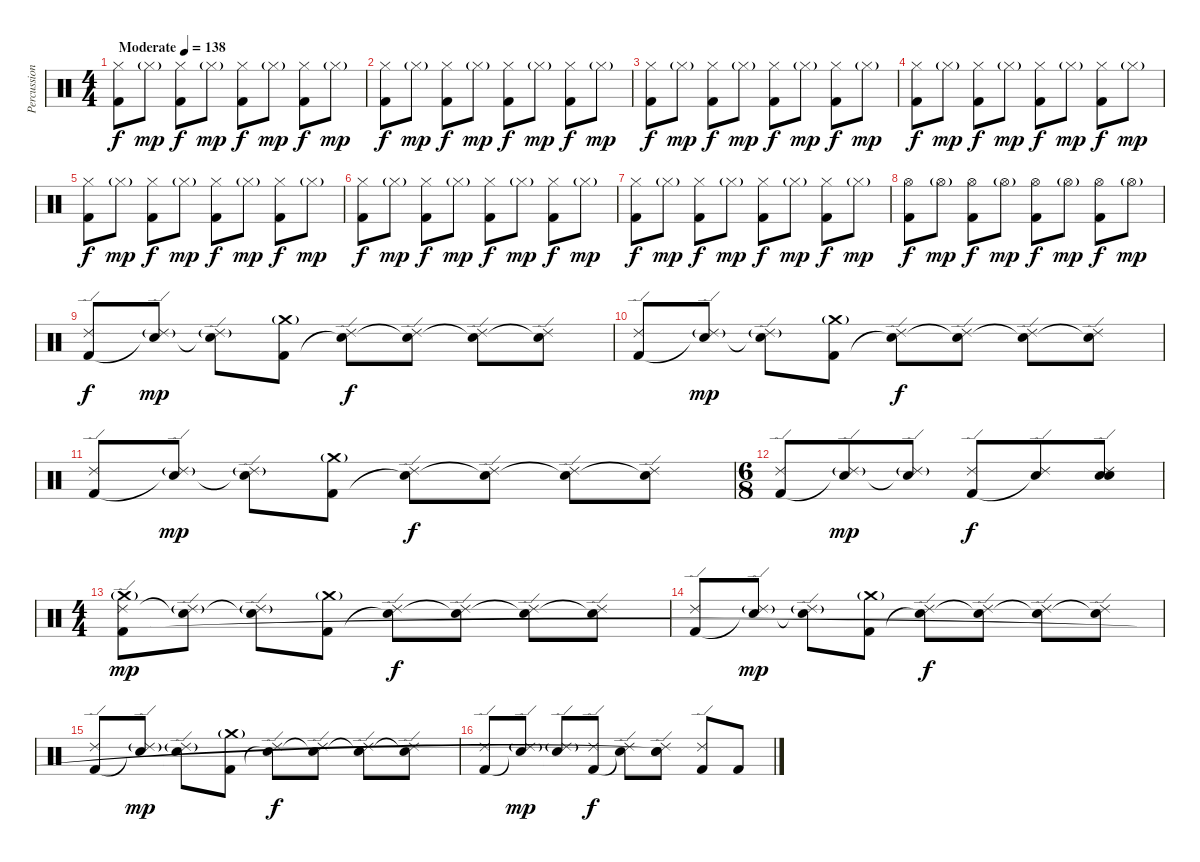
\track ("Percussion" "Percussion") {instrument percussion}
\staff {score}
\articulation defaults
\ts (4 4)
\tempo (138 "Moderate")
\clef neutral
\ks c
("Hi-Hat (closed)" "Kick (hit) 2").8{dy f} "Hi-Hat (closed)"{g}.8{dy mp} ("Hi-Hat (closed)" "Kick (hit) 2").8{dy f} "Hi-Hat (closed)"{g}.8{dy mp} ("Hi-Hat (closed)" "Kick (hit) 2").8{dy f} "Hi-Hat (closed)"{g}.8{dy mp} ("Hi-Hat (closed)" "Kick (hit) 2").8{dy f} "Hi-Hat (closed)"{g}.8{dy mp} |
("Hi-Hat (closed)" "Kick (hit) 2").8{dy f} "Hi-Hat (closed)"{g}.8{dy mp} ("Hi-Hat (closed)" "Kick (hit) 2").8{dy f} "Hi-Hat (closed)"{g}.8{dy mp} ("Hi-Hat (closed)" "Kick (hit) 2").8{dy f} "Hi-Hat (closed)"{g}.8{dy mp} ("Hi-Hat (closed)" "Kick (hit) 2").8{dy f} "Hi-Hat (closed)"{g}.8{dy mp} |
("Hi-Hat (closed)" "Kick (hit) 2").8{dy f} "Hi-Hat (closed)"{g}.8{dy mp} ("Hi-Hat (closed)" "Kick (hit) 2").8{dy f} "Hi-Hat (closed)"{g}.8{dy mp} ("Hi-Hat (closed)" "Kick (hit) 2").8{dy f} "Hi-Hat (closed)"{g}.8{dy mp} ("Hi-Hat (closed)" "Kick (hit) 2").8{dy f} "Hi-Hat (closed)"{g}.8{dy mp} |
("Hi-Hat (closed)" "Kick (hit) 2").8{dy f} "Hi-Hat (closed)"{g}.8{dy mp} ("Hi-Hat (closed)" "Kick (hit) 2").8{dy f} "Hi-Hat (closed)"{g}.8{dy mp} ("Hi-Hat (closed)" "Kick (hit) 2").8{dy f} "Hi-Hat (closed)"{g}.8{dy mp} ("Hi-Hat (closed)" "Kick (hit) 2").8{dy f} "Hi-Hat (closed)"{g}.8{dy mp} |
("Hi-Hat (closed)" "Kick (hit) 2").8{dy f} "Hi-Hat (closed)"{g}.8{dy mp} ("Hi-Hat (closed)" "Kick (hit) 2").8{dy f} "Hi-Hat (closed)"{g}.8{dy mp} ("Hi-Hat (closed)" "Kick (hit) 2").8{dy f} "Hi-Hat (closed)"{g}.8{dy mp} ("Hi-Hat (closed)" "Kick (hit) 2").8{dy f} "Hi-Hat (closed)"{g}.8{dy mp} |
("Hi-Hat (closed)" "Kick (hit) 2").8{dy f} "Hi-Hat (closed)"{g}.8{dy mp} ("Hi-Hat (closed)" "Kick (hit) 2").8{dy f} "Hi-Hat (closed)"{g}.8{dy mp} ("Hi-Hat (closed)" "Kick (hit) 2").8{dy f} "Hi-Hat (closed)"{g}.8{dy mp} ("Hi-Hat (closed)" "Kick (hit) 2").8{dy f} "Hi-Hat (closed)"{g}.8{dy mp} |
("Hi-Hat (closed)" "Kick (hit) 2").8{dy f} "Hi-Hat (closed)"{g}.8{dy mp} ("Hi-Hat (closed)" "Kick (hit) 2").8{dy f} "Hi-Hat (closed)"{g}.8{dy mp} ("Hi-Hat (closed)" "Kick (hit) 2").8{dy f} "Hi-Hat (closed)"{g}.8{dy mp} ("Hi-Hat (closed)" "Kick (hit) 2").8{dy f} "Hi-Hat (closed)"{g}.8{dy mp} |
("Hi-Hat (open)" "Kick (hit) 2").8{dy f} "Hi-Hat (open)"{g}.8{dy mp} ("Hi-Hat (open)" "Kick (hit) 2").8{dy f} "Hi-Hat (open)"{g}.8{dy mp} ("Hi-Hat (open)" "Kick (hit) 2").8{dy f} "Hi-Hat (open)"{g}.8{dy mp} ("Hi-Hat (open)" "Kick (hit) 2").8{dy f} "Hi-Hat (open)"{g}.8{dy mp} |
("Ride (edge) 2" "Kick (hit) 2").8{dy f} ("Ride (edge) 2"{g} "Snare (hit)"{t}).8{dy mp} ("Ride (edge) 2"{g} "Snare (hit)"{t}).8 ("Crash medium (hit)"{g} "Kick (hit) 2").8 ("Ride (edge) 2" "Snare (hit)"{t}).8{dy f} ("Ride (edge) 2" "Snare (hit)"{t}).8 ("Ride (edge) 2" "Snare (hit)"{t}).8 ("Ride (edge) 2" "Snare (hit)"{t}).8 |
("Ride (edge) 2" "Kick (hit) 2").8 ("Ride (edge) 2"{g} "Snare (hit)"{t}).8{dy mp} ("Ride (edge) 2"{g} "Snare (hit)"{t}).8 ("Crash medium (hit)"{g} "Kick (hit) 2").8 ("Ride (edge) 2" "Snare (hit)"{t}).8{dy f} ("Ride (edge) 2" "Snare (hit)"{t}).8 ("Ride (edge) 2" "Snare (hit)"{t}).8 ("Ride (edge) 2" "Snare (hit)"{t}).8 |
("Ride (edge) 2" "Kick (hit) 2").8 ("Ride (edge) 2"{g} "Snare (hit)"{t}).8{dy mp} ("Ride (edge) 2"{g} "Snare (hit)"{t}).8 ("Crash medium (hit)"{g} "Kick (hit) 2").8 ("Ride (edge) 2" "Snare (hit)"{t}).8{dy f} ("Ride (edge) 2" "Snare (hit)"{t}).8 ("Ride (edge) 2" "Snare (hit)"{t}).8 ("Ride (edge) 2" "Snare (hit)"{t}).8 |
\ts (6 8)
("Ride (edge) 2" "Kick (hit) 2").8 ("Ride (edge) 2"{g} "Snare (hit)"{t}).8{dy mp} ("Ride (edge) 2"{g} "Snare (hit)"{t}).8 ("Ride (edge) 2" "Kick (hit) 2").8{dy f} ("Ride (edge) 2" "Snare (hit)"{t}).8 ("Ride (edge) 2" "Snare (hit) 2" "Snare (hit)").8 |
\ts (4 4)
("Crash medium (hit)"{g} "Ride (edge) 2" "Kick (hit) 2").8{dy mp} ("Ride (edge) 2"{g} "Snare (hit)"{t}).8 ("Ride (edge) 2"{g} "Snare (hit)"{t}).8 ("Crash medium (hit)"{g} "Kick (hit) 2").8 ("Ride (edge) 2" "Snare (hit)"{t}).8{dy f} ("Ride (edge) 2" "Snare (hit)"{t}).8 ("Ride (edge) 2" "Snare (hit)"{t}).8 ("Ride (edge) 2" "Snare (hit)"{t}).8 |
("Ride (edge) 2" "Kick (hit) 2").8 ("Ride (edge) 2"{g} "Snare (hit)"{t}).8{dy mp} ("Ride (edge) 2"{g} "Snare (hit)"{t}).8 ("Crash medium (hit)"{g} "Kick (hit) 2").8 ("Ride (edge) 2" "Snare (hit)"{t}).8{dy f} ("Ride (edge) 2" "Snare (hit)"{t}).8 ("Ride (edge) 2" "Snare (hit)"{t}).8 ("Ride (edge) 2" "Snare (hit)"{t}).8 |
("Ride (edge) 2" "Kick (hit) 2").8 ("Ride (edge) 2"{g} "Snare (hit)"{t}).8{dy mp} ("Ride (edge) 2"{g} "Snare (hit)"{t}).8 ("Crash medium (hit)"{g} "Kick (hit) 2").8 ("Ride (edge) 2" "Snare (hit)"{t}).8{dy f} ("Ride (edge) 2" "Snare (hit)"{t}).8 ("Ride (edge) 2" "Snare (hit)"{t}).8 ("Ride (edge) 2" "Snare (hit)"{t}).8 |
("Ride (edge) 2" "Kick (hit) 2").8 ("Ride (edge) 2"{g} "Snare (hit)"{t}).8{dy mp} ("Ride (edge) 2"{g} "Snare (hit)"{t}).8 ("Ride (edge) 2" "Kick (hit) 2").8{dy f} ("Ride (edge) 2" "Snare (hit)"{t}).8 ("Ride (edge) 2" "Snare (hit) 2" "Snare (hit)"{t}).8 ("Ride (edge) 2" "Kick (hit) 2").8 "Kick (hit) 2".8
